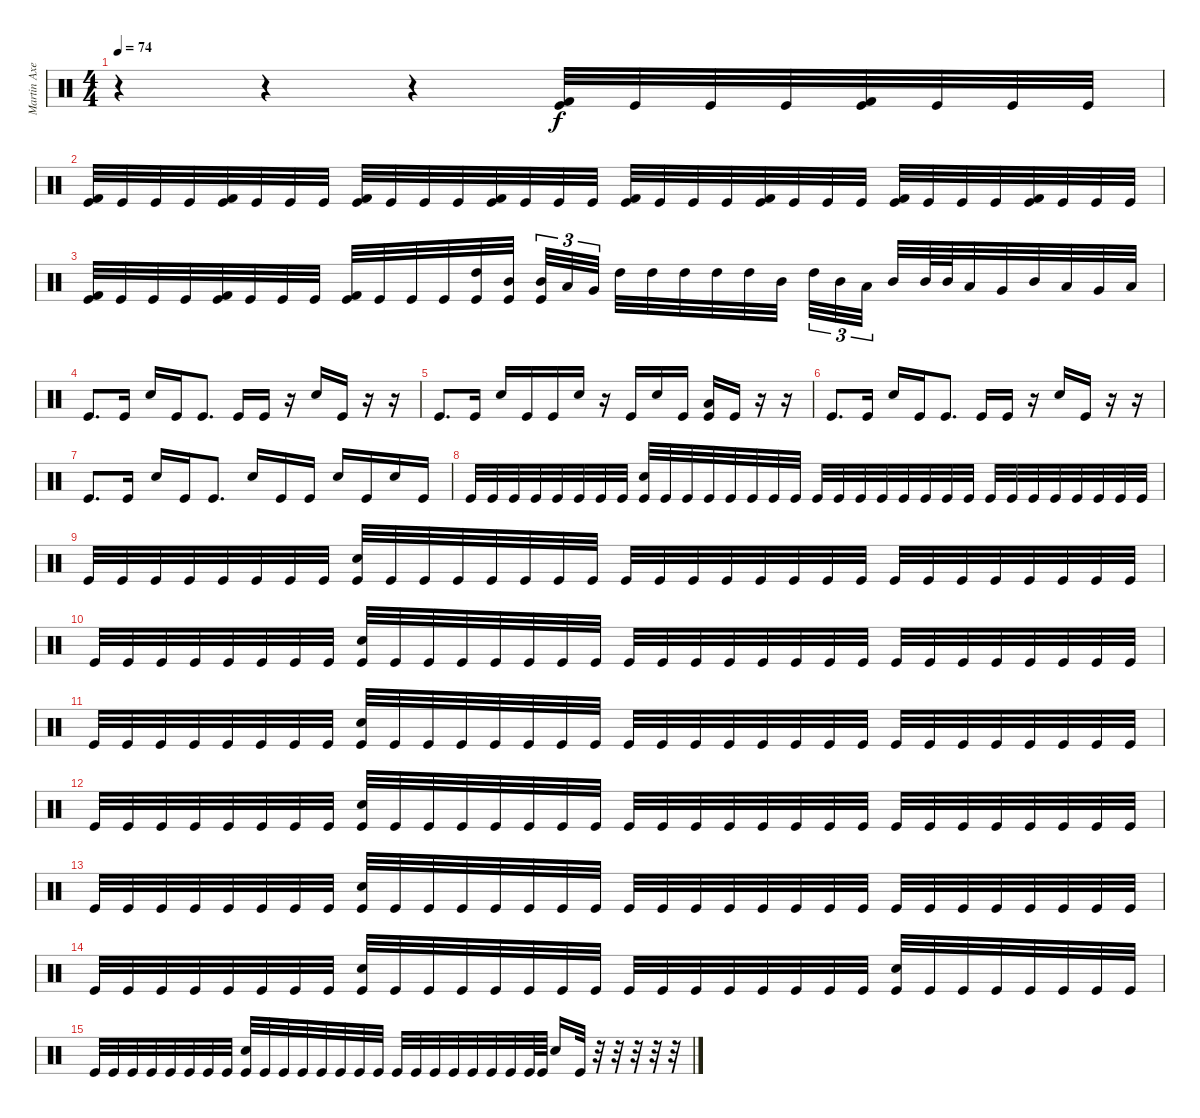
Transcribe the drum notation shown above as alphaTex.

\track ("Martin Axenrot - Drums" "Martin Axe") {instrument percussion}
\staff {score}
\articulation defaults
\ts (4 4)
\tempo 74
\clef neutral
\ks c
r.4{dy f volume 0} r.4 r.4 ("Kick (hit) 2" "Kick (hit)").32{volume 4} "Kick (hit)".32 "Kick (hit)".32 "Kick (hit)".32 ("Kick (hit) 2" "Kick (hit)").32 "Kick (hit)".32 "Kick (hit)".32 "Kick (hit)".32 |
("Kick (hit) 2" "Kick (hit)").32 "Kick (hit)".32 "Kick (hit)".32 "Kick (hit)".32 ("Kick (hit) 2" "Kick (hit)").32 "Kick (hit)".32 "Kick (hit)".32 "Kick (hit)".32 ("Kick (hit) 2" "Kick (hit)").32 "Kick (hit)".32 "Kick (hit)".32 "Kick (hit)".32 ("Kick (hit) 2" "Kick (hit)").32 "Kick (hit)".32 "Kick (hit)".32 "Kick (hit)".32 ("Kick (hit) 2" "Kick (hit)").32 "Kick (hit)".32 "Kick (hit)".32 "Kick (hit)".32 ("Kick (hit) 2" "Kick (hit)").32 "Kick (hit)".32 "Kick (hit)".32 "Kick (hit)".32 ("Kick (hit) 2" "Kick (hit)").32 "Kick (hit)".32 "Kick (hit)".32 "Kick (hit)".32 ("Kick (hit) 2" "Kick (hit)").32 "Kick (hit)".32 "Kick (hit)".32 "Kick (hit)".32 |
("Kick (hit) 2" "Kick (hit)").32{volume 6} "Kick (hit)".32 "Kick (hit)".32 "Kick (hit)".32 ("Kick (hit) 2" "Kick (hit)").32 "Kick (hit)".32 "Kick (hit)".32 "Kick (hit)".32 ("Kick (hit) 2" "Kick (hit)").32 "Kick (hit)".32 "Kick (hit)".32 "Kick (hit)".32 ("High Tom (hit)" "Kick (hit)").32 ("Mid Tom (hit)" "Kick (hit)").32 ("Mid Tom (hit)" "Kick (hit)").32{tu (3 2)} "Low Tom (hit)".32{tu (3 2)} "Very Low Tom (hit)".32{tu (3 2)} "High Tom (hit)".32 "High Tom (hit)".32 "High Tom (hit)".32 "High Tom (hit)".32 "High Tom (hit)".32 "Mid Tom (hit)".32 "High Tom (hit)".32{tu (3 2)} "Mid Tom (hit)".32{tu (3 2)} "Low Tom (hit)".32{tu (3 2)} "Mid Tom (hit)".32 "Mid Tom (hit)".64 "Mid Tom (hit)".64 "Low Tom (hit)".32 "Very Low Tom (hit)".32 "Mid Tom (hit)".32 "Low Tom (hit)".32 "Very Low Tom (hit)".32 "Low Floor Tom (hit)".32 |
"Kick (hit)".8{d} "Kick (hit)".16 "Snare (hit) 2".16 "Kick (hit)".16 "Kick (hit)".8{d} "Kick (hit)".16 "Kick (hit)".16 r.16 "Snare (hit) 2".16 "Kick (hit)".16 r.16 r.16 |
"Kick (hit)".8{d} "Kick (hit)".16 "Snare (hit) 2".16 "Kick (hit)".16 "Kick (hit)".16 "Snare (hit) 2".16 r.16 "Kick (hit)".16 "Snare (hit) 2".16 "Kick (hit)".16 ("Low Floor Tom (hit)" "Kick (hit)").16 "Kick (hit)".16 r.16 r.16 |
"Kick (hit)".8{d} "Kick (hit)".16 "Snare (hit) 2".16 "Kick (hit)".16 "Kick (hit)".8{d} "Kick (hit)".16 "Kick (hit)".16 r.16 "Snare (hit) 2".16 "Kick (hit)".16 r.16 r.16 |
"Kick (hit)".8{d} "Kick (hit)".16 "Snare (hit) 2".16 "Kick (hit)".16 "Kick (hit)".8{d} "Snare (hit) 2".16 "Kick (hit)".16 "Kick (hit)".16 "Snare (hit) 2".16 "Kick (hit)".16 "Snare (hit) 2".16 "Kick (hit)".16 |
"Kick (hit)".32 "Kick (hit)".32 "Kick (hit)".32 "Kick (hit)".32 "Kick (hit)".32 "Kick (hit)".32 "Kick (hit)".32 "Kick (hit)".32 ("Snare (hit) 2" "Kick (hit)").32 "Kick (hit)".32 "Kick (hit)".32 "Kick (hit)".32 "Kick (hit)".32 "Kick (hit)".32 "Kick (hit)".32 "Kick (hit)".32 "Kick (hit)".32 "Kick (hit)".32 "Kick (hit)".32 "Kick (hit)".32 "Kick (hit)".32 "Kick (hit)".32 "Kick (hit)".32 "Kick (hit)".32 "Kick (hit)".32 "Kick (hit)".32 "Kick (hit)".32 "Kick (hit)".32 "Kick (hit)".32 "Kick (hit)".32 "Kick (hit)".32 "Kick (hit)".32 |
"Kick (hit)".32 "Kick (hit)".32 "Kick (hit)".32 "Kick (hit)".32 "Kick (hit)".32 "Kick (hit)".32 "Kick (hit)".32 "Kick (hit)".32 ("Snare (hit) 2" "Kick (hit)").32 "Kick (hit)".32 "Kick (hit)".32 "Kick (hit)".32 "Kick (hit)".32 "Kick (hit)".32 "Kick (hit)".32 "Kick (hit)".32 "Kick (hit)".32 "Kick (hit)".32 "Kick (hit)".32 "Kick (hit)".32 "Kick (hit)".32 "Kick (hit)".32 "Kick (hit)".32 "Kick (hit)".32 "Kick (hit)".32 "Kick (hit)".32 "Kick (hit)".32 "Kick (hit)".32 "Kick (hit)".32 "Kick (hit)".32 "Kick (hit)".32 "Kick (hit)".32 |
"Kick (hit)".32 "Kick (hit)".32 "Kick (hit)".32 "Kick (hit)".32 "Kick (hit)".32 "Kick (hit)".32 "Kick (hit)".32 "Kick (hit)".32 ("Snare (hit) 2" "Kick (hit)").32 "Kick (hit)".32 "Kick (hit)".32 "Kick (hit)".32 "Kick (hit)".32 "Kick (hit)".32 "Kick (hit)".32 "Kick (hit)".32 "Kick (hit)".32 "Kick (hit)".32 "Kick (hit)".32 "Kick (hit)".32 "Kick (hit)".32 "Kick (hit)".32 "Kick (hit)".32 "Kick (hit)".32 "Kick (hit)".32 "Kick (hit)".32 "Kick (hit)".32 "Kick (hit)".32 "Kick (hit)".32 "Kick (hit)".32 "Kick (hit)".32 "Kick (hit)".32 |
"Kick (hit)".32 "Kick (hit)".32 "Kick (hit)".32 "Kick (hit)".32 "Kick (hit)".32 "Kick (hit)".32 "Kick (hit)".32 "Kick (hit)".32 ("Snare (hit) 2" "Kick (hit)").32 "Kick (hit)".32 "Kick (hit)".32 "Kick (hit)".32 "Kick (hit)".32 "Kick (hit)".32 "Kick (hit)".32 "Kick (hit)".32 "Kick (hit)".32 "Kick (hit)".32 "Kick (hit)".32 "Kick (hit)".32 "Kick (hit)".32 "Kick (hit)".32 "Kick (hit)".32 "Kick (hit)".32 "Kick (hit)".32 "Kick (hit)".32 "Kick (hit)".32 "Kick (hit)".32 "Kick (hit)".32 "Kick (hit)".32 "Kick (hit)".32 "Kick (hit)".32 |
"Kick (hit)".32 "Kick (hit)".32 "Kick (hit)".32 "Kick (hit)".32 "Kick (hit)".32 "Kick (hit)".32 "Kick (hit)".32 "Kick (hit)".32 ("Snare (hit) 2" "Kick (hit)").32 "Kick (hit)".32 "Kick (hit)".32 "Kick (hit)".32 "Kick (hit)".32 "Kick (hit)".32 "Kick (hit)".32 "Kick (hit)".32 "Kick (hit)".32 "Kick (hit)".32 "Kick (hit)".32 "Kick (hit)".32 "Kick (hit)".32 "Kick (hit)".32 "Kick (hit)".32 "Kick (hit)".32 "Kick (hit)".32 "Kick (hit)".32 "Kick (hit)".32 "Kick (hit)".32 "Kick (hit)".32 "Kick (hit)".32 "Kick (hit)".32 "Kick (hit)".32 |
"Kick (hit)".32 "Kick (hit)".32 "Kick (hit)".32 "Kick (hit)".32 "Kick (hit)".32 "Kick (hit)".32 "Kick (hit)".32 "Kick (hit)".32 ("Snare (hit) 2" "Kick (hit)").32 "Kick (hit)".32 "Kick (hit)".32 "Kick (hit)".32 "Kick (hit)".32 "Kick (hit)".32 "Kick (hit)".32 "Kick (hit)".32 "Kick (hit)".32 "Kick (hit)".32 "Kick (hit)".32 "Kick (hit)".32 "Kick (hit)".32 "Kick (hit)".32 "Kick (hit)".32 "Kick (hit)".32 "Kick (hit)".32 "Kick (hit)".32 "Kick (hit)".32 "Kick (hit)".32 "Kick (hit)".32 "Kick (hit)".32 "Kick (hit)".32 "Kick (hit)".32 |
"Kick (hit)".32 "Kick (hit)".32 "Kick (hit)".32 "Kick (hit)".32 "Kick (hit)".32 "Kick (hit)".32 "Kick (hit)".32 "Kick (hit)".32 ("Snare (hit) 2" "Kick (hit)").32 "Kick (hit)".32 "Kick (hit)".32 "Kick (hit)".32 "Kick (hit)".32 "Kick (hit)".32 "Kick (hit)".32 "Kick (hit)".32 "Kick (hit)".32 "Kick (hit)".32 "Kick (hit)".32 "Kick (hit)".32 "Kick (hit)".32 "Kick (hit)".32 "Kick (hit)".32 "Kick (hit)".32 ("Snare (hit) 2" "Kick (hit)").32 "Kick (hit)".32 "Kick (hit)".32 "Kick (hit)".32 "Kick (hit)".32 "Kick (hit)".32 "Kick (hit)".32 "Kick (hit)".32 |
"Kick (hit)".32 "Kick (hit)".32 "Kick (hit)".32 "Kick (hit)".32 "Kick (hit)".32 "Kick (hit)".32 "Kick (hit)".32 "Kick (hit)".32 ("Snare (hit) 2" "Kick (hit)").32 "Kick (hit)".32 "Kick (hit)".32 "Kick (hit)".32 "Kick (hit)".32 "Kick (hit)".32 "Kick (hit)".32 "Kick (hit)".32 "Kick (hit)".32 "Kick (hit)".32 "Kick (hit)".32 "Kick (hit)".32 "Kick (hit)".32 "Kick (hit)".32 "Kick (hit)".32 "Kick (hit)".64 "Kick (hit)".64 "Snare (hit) 2".16 "Kick (hit)".32 r.32 r.32 r.32 r.32 r.32
